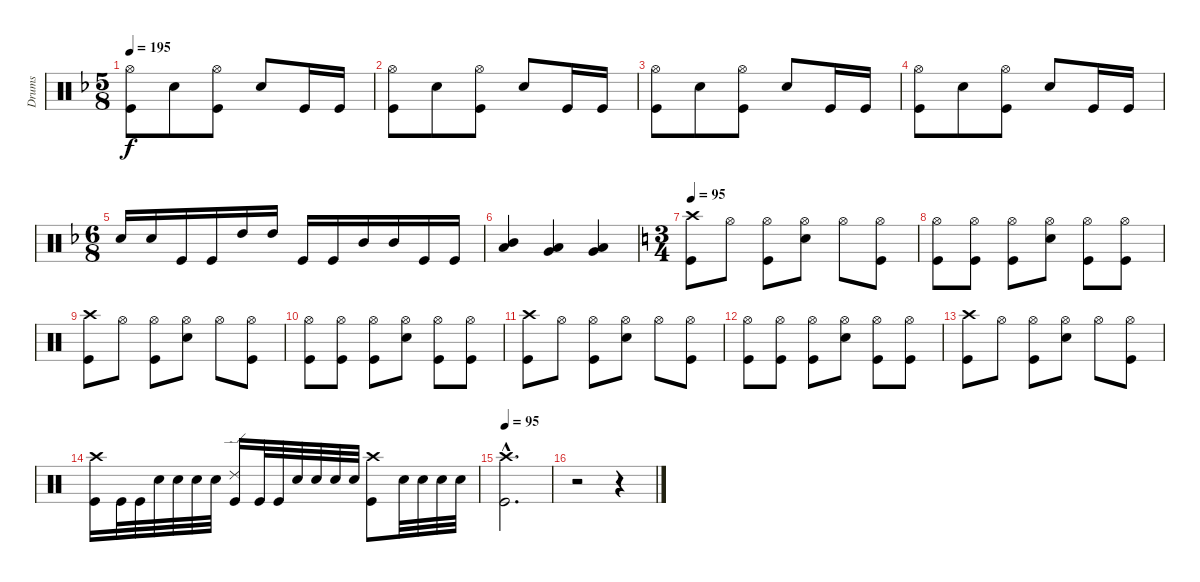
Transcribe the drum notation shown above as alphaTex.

\track ("Drums" "Drums") {instrument percussion}
\staff {score}
\articulation defaults
\ts (5 8)
\tempo 195
\clef neutral
\ks f
("Hi-Hat (open)" "Kick (hit)").8{dy f} "Electric Snare (hit)".8 ("Hi-Hat (open)" "Kick (hit)").8 "Electric Snare (hit)".8 "Kick (hit)".16 "Kick (hit)".16 |
("Hi-Hat (open)" "Kick (hit)").8 "Electric Snare (hit)".8 ("Hi-Hat (open)" "Kick (hit)").8 "Electric Snare (hit)".8 "Kick (hit)".16 "Kick (hit)".16 |
("Hi-Hat (open)" "Kick (hit)").8 "Electric Snare (hit)".8 ("Hi-Hat (open)" "Kick (hit)").8 "Electric Snare (hit)".8 "Kick (hit)".16 "Kick (hit)".16 |
("Hi-Hat (open)" "Kick (hit)").8 "Electric Snare (hit)".8 ("Hi-Hat (open)" "Kick (hit)").8 "Electric Snare (hit)".8 "Kick (hit)".16 "Kick (hit)".16 |
\ts (6 8)
"Electric Snare (hit)".16 "Electric Snare (hit)".16 "Kick (hit)".16 "Kick (hit)".16 "High Tom (hit)".16 "High Tom (hit)".16 "Kick (hit)".16 "Kick (hit)".16 "Mid Tom (hit)".16 "Mid Tom (hit)".16 "Kick (hit)".16 "Kick (hit)".16 |
("Mid Tom (hit)" "Low Tom (hit)").4 ("Low Tom (hit)" "Very Low Tom (hit)").4 ("Very Low Tom (hit)" "Low Floor Tom (hit)").4 |
\ts (3 4)
\tempo 95
\ks c
("Crash high (hit)" "Kick (hit)").8 "Hi-Hat (open)".8 ("Hi-Hat (open)" "Kick (hit)").8 ("Hi-Hat (open)" "Electric Snare (hit)").8 "Hi-Hat (open)".8 ("Hi-Hat (open)" "Kick (hit)").8 |
("Hi-Hat (open)" "Kick (hit)").8 ("Hi-Hat (open)" "Kick (hit)").8 ("Hi-Hat (open)" "Kick (hit)").8 ("Hi-Hat (open)" "Electric Snare (hit)").8 ("Hi-Hat (open)" "Kick (hit)").8 ("Hi-Hat (open)" "Kick (hit)").8 |
("Crash high (hit)" "Kick (hit)").8 "Hi-Hat (open)".8 ("Hi-Hat (open)" "Kick (hit)").8 ("Hi-Hat (open)" "Electric Snare (hit)").8 "Hi-Hat (open)".8 ("Hi-Hat (open)" "Kick (hit)").8 |
("Hi-Hat (open)" "Kick (hit)").8 ("Hi-Hat (open)" "Kick (hit)").8 ("Hi-Hat (open)" "Kick (hit)").8 ("Hi-Hat (open)" "Electric Snare (hit)").8 ("Hi-Hat (open)" "Kick (hit)").8 ("Hi-Hat (open)" "Kick (hit)").8 |
("Crash high (hit)" "Kick (hit)").8 "Hi-Hat (open)".8 ("Hi-Hat (open)" "Kick (hit)").8 ("Hi-Hat (open)" "Electric Snare (hit)").8 "Hi-Hat (open)".8 ("Hi-Hat (open)" "Kick (hit)").8 |
("Hi-Hat (open)" "Kick (hit)").8 ("Hi-Hat (open)" "Kick (hit)").8 ("Hi-Hat (open)" "Kick (hit)").8 ("Hi-Hat (open)" "Electric Snare (hit)").8 ("Hi-Hat (open)" "Kick (hit)").8 ("Hi-Hat (open)" "Kick (hit)").8 |
("Crash high (hit)" "Kick (hit)").8 "Hi-Hat (open)".8 ("Hi-Hat (open)" "Kick (hit)").8 ("Hi-Hat (open)" "Electric Snare (hit)").8 "Hi-Hat (open)".8 ("Hi-Hat (open)" "Kick (hit)").8 |
("Crash high (hit)" "Kick (hit)").16 "Kick (hit)".32 "Kick (hit)".32 "Electric Snare (hit)".32 "Electric Snare (hit)".32 "Electric Snare (hit)".32 "Electric Snare (hit)".32 ("Ride (edge) 2" "Kick (hit)").16 "Kick (hit)".32 "Kick (hit)".32 "Electric Snare (hit)".32 "Electric Snare (hit)".32 "Electric Snare (hit)".32 "Electric Snare (hit)".32 ("Crash high (hit)" "Kick (hit)").8 "Electric Snare (hit)".32 "Electric Snare (hit)".32 "Electric Snare (hit)".32 "Electric Snare (hit)".32 |
\tempo 95
("Crash high (hit)"{hac} "Kick (hit)"{hac}).2{d} |
r.2 r.4
